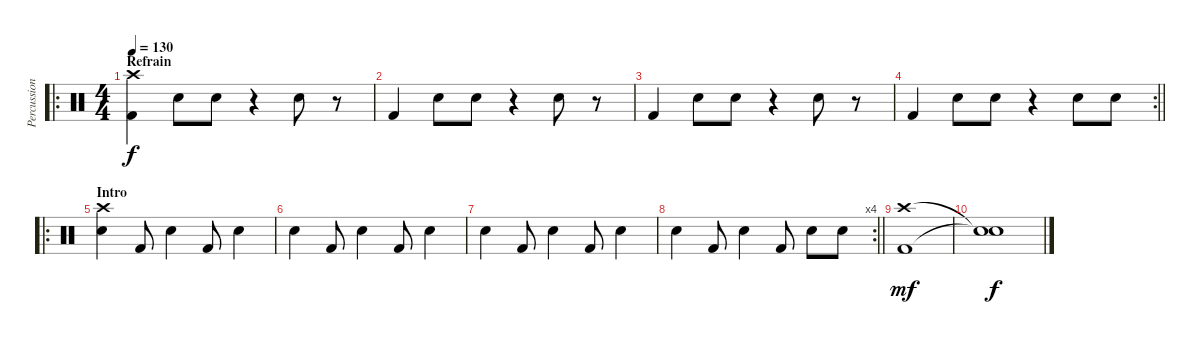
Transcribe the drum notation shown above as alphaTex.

\track ("Percussions" "Percussion") {instrument percussion}
\staff {score}
\articulation defaults
\ro
\ts (4 4)
\section ("" "Refrain")
\tempo 130
\clef neutral
\ks c
("Crash high (hit)" "Kick (hit) 2").4{dy f} "Snare (hit) 2".8 "Snare (hit) 2".8 r.4 "Snare (hit) 2".8 r.8 |
"Kick (hit) 2".4 "Snare (hit) 2".8 "Snare (hit) 2".8 r.4 "Snare (hit) 2".8 r.8 |
"Kick (hit) 2".4 "Snare (hit) 2".8 "Snare (hit) 2".8 r.4 "Snare (hit) 2".8 r.8 |
\rc 2
\barLineRight lightlight "Kick (hit) 2".4 "Snare (hit) 2".8 "Snare (hit) 2".8
r.4 "Snare (hit) 2".8 "Snare (hit) 2".8 |
\ro
\section ("" "Intro")
("Crash high (hit)" "Snare (hit) 2").4 "Kick (hit) 2".8 "Snare (hit) 2".4 "Kick (hit) 2".8 "Snare (hit) 2".4 |
"Snare (hit) 2".4 "Kick (hit) 2".8 "Snare (hit) 2".4 "Kick (hit) 2".8 "Snare (hit) 2".4 |
"Snare (hit) 2".4 "Kick (hit) 2".8 "Snare (hit) 2".4 "Kick (hit) 2".8 "Snare (hit) 2".4 |
\rc 4
\barLineRight lightlight "Snare (hit) 2".4 "Kick (hit) 2".8 "Snare (hit) 2".4 "Kick (hit) 2".8 "Snare (hit) 2".8 "Snare (hit) 2".8
|
("Crash high (hit)" "Kick (hit) 2").1{dy mf} |
("Snare (hit)"{t} "Snare (hit)"{t}).1{dy f}
